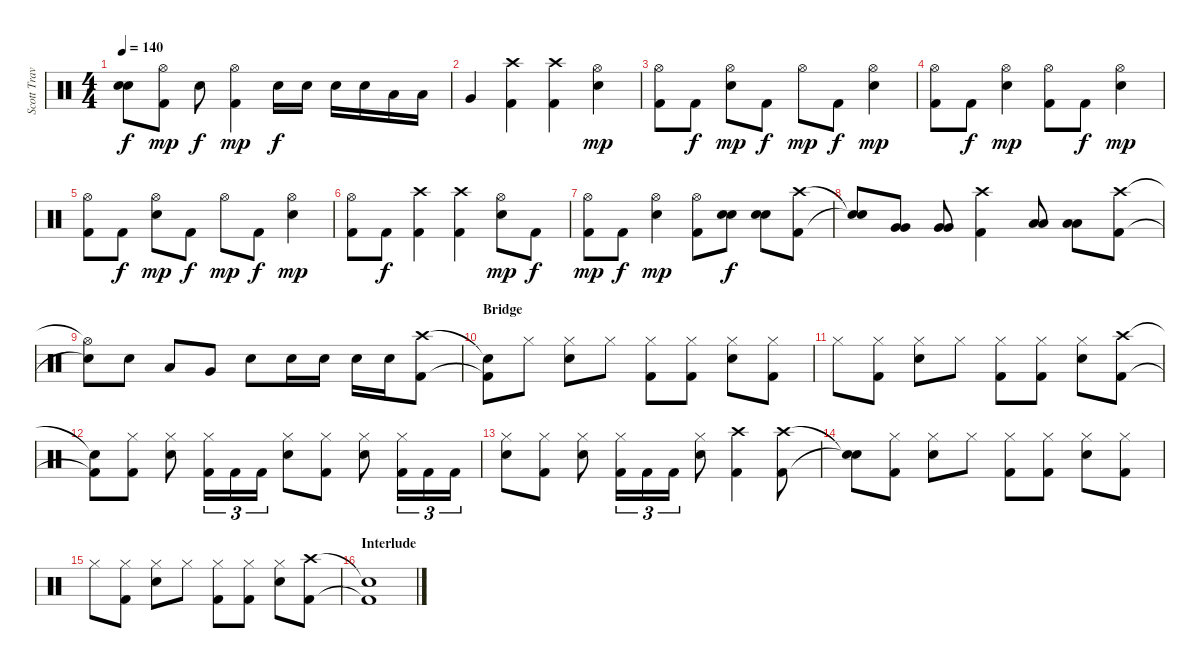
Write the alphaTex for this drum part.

\track ("Scott Travis" "Scott Trav") {instrument percussion}
\staff {score}
\articulation defaults
\ts (4 4)
\tempo 140
\clef neutral
\ks c
("Snare (hit)"{t} "Snare (hit)"{t}).8{dy f} ("Hi-Hat (open)" "Kick (hit) 2").8{dy mp} "Snare (hit) 2".8{dy f} ("Hi-Hat (open)" "Kick (hit) 2").4{dy mp} "Snare (hit) 2".16{dy f} "Snare (hit) 2".16 "Snare (hit) 2".16 "Snare (hit) 2".16 "Low Tom (hit)".16 "Low Tom (hit)".16 |
"Very Low Tom (hit)".4 ("Crash high (hit)" "Kick (hit) 2").4 ("Crash high (hit)" "Kick (hit) 2").4 ("Hi-Hat (open)" "Snare (hit) 2").4{dy mp} |
("Hi-Hat (open)" "Kick (hit) 2").8 "Kick (hit) 2".8{dy f} ("Hi-Hat (open)" "Snare (hit) 2").8{dy mp} "Kick (hit) 2".8{dy f} "Hi-Hat (open)".8{dy mp} "Kick (hit) 2".8{dy f} ("Hi-Hat (open)" "Snare (hit) 2").4{dy mp} |
("Hi-Hat (open)" "Kick (hit) 2").8 "Kick (hit) 2".8{dy f} ("Hi-Hat (open)" "Snare (hit) 2").4{dy mp} ("Hi-Hat (open)" "Kick (hit) 2").8 "Kick (hit) 2".8{dy f} ("Hi-Hat (open)" "Snare (hit) 2").4{dy mp} |
("Hi-Hat (open)" "Kick (hit) 2").8 "Kick (hit) 2".8{dy f} ("Hi-Hat (open)" "Snare (hit) 2").8{dy mp} "Kick (hit) 2".8{dy f} "Hi-Hat (open)".8{dy mp} "Kick (hit) 2".8{dy f} ("Hi-Hat (open)" "Snare (hit) 2").4{dy mp} |
("Hi-Hat (open)" "Kick (hit) 2").8 "Kick (hit) 2".8{dy f} ("Crash high (hit)" "Kick (hit) 2").4 ("Crash high (hit)" "Kick (hit) 2").4 ("Hi-Hat (open)" "Snare (hit) 2").8{dy mp} "Kick (hit) 2".8{dy f} |
("Hi-Hat (open)" "Kick (hit) 2").8{dy mp} "Kick (hit) 2".8{dy f} ("Hi-Hat (open)" "Snare (hit) 2").4{dy mp} ("Hi-Hat (open)" "Kick (hit) 2").8 ("Snare (hit) 2" "Snare (hit) 2").8{dy f} ("Snare (hit) 2" "Snare (hit) 2").8 ("Crash high (hit)" "Kick (hit) 2").8 |
("Snare (hit)"{t} "Snare (hit)"{t}).8 ("Very Low Tom (hit)" "Very Low Tom (hit)").8 ("Very Low Tom (hit)" "Very Low Tom (hit)").8 ("Crash high (hit)" "Kick (hit) 2").4 ("Low Tom (hit)" "Low Tom (hit)").8 ("Low Tom (hit)" "Low Tom (hit)").8 ("Crash high (hit)" "Kick (hit) 2").8 |
("Hi-Hat (open)"{t} "Snare (hit)"{t}).8 "Snare (hit) 2".8 "Low Tom (hit)".8 "Very Low Tom (hit)".8 "Snare (hit) 2".8 "Snare (hit) 2".16 "Snare (hit) 2".16 "Snare (hit) 2".16 "Snare (hit) 2".16 ("Crash high (hit)" "Kick (hit) 2").8 |
\section ("" "Bridge")
("Snare (hit)"{t} "Kick (hit) 2"{t}).8 "Hi-Hat (closed)".8 ("Hi-Hat (closed)" "Snare (hit) 2").8 "Hi-Hat (closed)".8 ("Hi-Hat (closed)" "Kick (hit) 2").8 ("Hi-Hat (closed)" "Kick (hit) 2").8 ("Hi-Hat (closed)" "Snare (hit) 2").8 ("Hi-Hat (closed)" "Kick (hit) 2").8 |
"Hi-Hat (closed)".8 ("Hi-Hat (closed)" "Kick (hit) 2").8 ("Hi-Hat (closed)" "Snare (hit) 2").8 "Hi-Hat (closed)".8 ("Hi-Hat (closed)" "Kick (hit) 2").8 ("Hi-Hat (closed)" "Kick (hit) 2").8 ("Hi-Hat (closed)" "Snare (hit) 2").8 ("Crash high (hit)" "Kick (hit) 2").8 |
("Snare (hit)"{t} "Kick (hit) 2"{t}).8 ("Hi-Hat (closed)" "Kick (hit) 2").8 ("Hi-Hat (closed)" "Snare (hit) 2").8 ("Hi-Hat (closed)" "Kick (hit) 2").16{tu (3 2)} "Kick (hit) 2".16{tu (3 2)} "Kick (hit) 2".16{tu (3 2)} ("Hi-Hat (closed)" "Snare (hit) 2").8 ("Hi-Hat (closed)" "Kick (hit) 2").8 ("Hi-Hat (closed)" "Snare (hit) 2").8 ("Hi-Hat (closed)" "Kick (hit) 2").16{tu (3 2)} "Kick (hit) 2".16{tu (3 2)} "Kick (hit) 2".16{tu (3 2)} |
("Hi-Hat (closed)" "Snare (hit) 2").8 ("Hi-Hat (closed)" "Kick (hit) 2").8 ("Hi-Hat (closed)" "Snare (hit) 2").8 ("Hi-Hat (closed)" "Kick (hit) 2").16{tu (3 2)} "Kick (hit) 2".16{tu (3 2)} "Kick (hit) 2".16{tu (3 2)} ("Hi-Hat (closed)" "Snare (hit) 2").8 ("Crash high (hit)" "Kick (hit) 2").4 ("Crash high (hit)" "Kick (hit) 2").8 |
("Snare (hit)"{t} "Snare (hit)"{t}).8 ("Hi-Hat (closed)" "Kick (hit) 2").8 ("Hi-Hat (closed)" "Snare (hit) 2").8 "Hi-Hat (closed)".8 ("Hi-Hat (closed)" "Kick (hit) 2").8 ("Hi-Hat (closed)" "Kick (hit) 2").8 ("Hi-Hat (closed)" "Snare (hit) 2").8 ("Hi-Hat (closed)" "Kick (hit) 2").8 |
"Hi-Hat (closed)".8 ("Hi-Hat (closed)" "Kick (hit) 2").8 ("Hi-Hat (closed)" "Snare (hit) 2").8 "Hi-Hat (closed)".8 ("Hi-Hat (closed)" "Kick (hit) 2").8 ("Hi-Hat (closed)" "Kick (hit) 2").8 ("Hi-Hat (closed)" "Snare (hit) 2").8 ("Crash high (hit)" "Kick (hit) 2").8 |
\section ("" "Interlude")
("Snare (hit)"{t} "Kick (hit) 2"{t}).1
